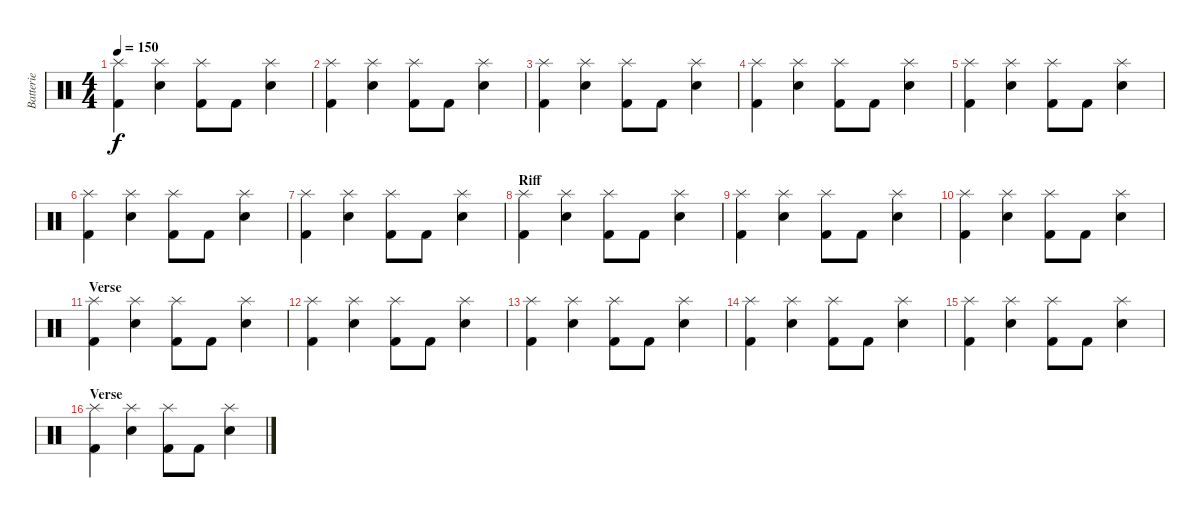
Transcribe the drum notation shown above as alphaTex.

\track ("Batterie" "Batterie") {instrument percussion}
\staff {score}
\articulation defaults
\ts (4 4)
\tempo 150
\clef neutral
\ks c
("Splash (hit)" "Kick (hit) 2").4{dy f} ("Splash (hit)" "Electric Snare (hit)").4 ("Splash (hit)" "Kick (hit) 2").8 "Kick (hit) 2".8 ("Splash (hit)" "Electric Snare (hit)").4 |
("Splash (hit)" "Kick (hit) 2").4 ("Splash (hit)" "Electric Snare (hit)").4 ("Splash (hit)" "Kick (hit) 2").8 "Kick (hit) 2".8 ("Splash (hit)" "Electric Snare (hit)").4 |
("Splash (hit)" "Kick (hit) 2").4 ("Splash (hit)" "Electric Snare (hit)").4 ("Splash (hit)" "Kick (hit) 2").8 "Kick (hit) 2".8 ("Splash (hit)" "Electric Snare (hit)").4 |
("Splash (hit)" "Kick (hit) 2").4 ("Splash (hit)" "Electric Snare (hit)").4 ("Splash (hit)" "Kick (hit) 2").8 "Kick (hit) 2".8 ("Splash (hit)" "Electric Snare (hit)").4 |
("Splash (hit)" "Kick (hit) 2").4 ("Splash (hit)" "Electric Snare (hit)").4 ("Splash (hit)" "Kick (hit) 2").8 "Kick (hit) 2".8 ("Splash (hit)" "Electric Snare (hit)").4 |
("Splash (hit)" "Kick (hit) 2").4 ("Splash (hit)" "Electric Snare (hit)").4 ("Splash (hit)" "Kick (hit) 2").8 "Kick (hit) 2".8 ("Splash (hit)" "Electric Snare (hit)").4 |
("Splash (hit)" "Kick (hit) 2").4 ("Splash (hit)" "Electric Snare (hit)").4 ("Splash (hit)" "Kick (hit) 2").8 "Kick (hit) 2".8 ("Splash (hit)" "Electric Snare (hit)").4 |
\section ("" "Riff")
("Splash (hit)" "Kick (hit) 2").4 ("Splash (hit)" "Electric Snare (hit)").4 ("Splash (hit)" "Kick (hit) 2").8 "Kick (hit) 2".8 ("Splash (hit)" "Electric Snare (hit)").4 |
("Splash (hit)" "Kick (hit) 2").4 ("Splash (hit)" "Electric Snare (hit)").4 ("Splash (hit)" "Kick (hit) 2").8 "Kick (hit) 2".8 ("Splash (hit)" "Electric Snare (hit)").4 |
("Splash (hit)" "Kick (hit) 2").4 ("Splash (hit)" "Electric Snare (hit)").4 ("Splash (hit)" "Kick (hit) 2").8 "Kick (hit) 2".8 ("Splash (hit)" "Electric Snare (hit)").4 |
\section ("" "Verse")
("Splash (hit)" "Kick (hit) 2").4 ("Splash (hit)" "Electric Snare (hit)").4 ("Splash (hit)" "Kick (hit) 2").8 "Kick (hit) 2".8 ("Splash (hit)" "Electric Snare (hit)").4 |
("Splash (hit)" "Kick (hit) 2").4 ("Splash (hit)" "Electric Snare (hit)").4 ("Splash (hit)" "Kick (hit) 2").8 "Kick (hit) 2".8 ("Splash (hit)" "Electric Snare (hit)").4 |
("Splash (hit)" "Kick (hit) 2").4 ("Splash (hit)" "Electric Snare (hit)").4 ("Splash (hit)" "Kick (hit) 2").8 "Kick (hit) 2".8 ("Splash (hit)" "Electric Snare (hit)").4 |
("Splash (hit)" "Kick (hit) 2").4 ("Splash (hit)" "Electric Snare (hit)").4 ("Splash (hit)" "Kick (hit) 2").8 "Kick (hit) 2".8 ("Splash (hit)" "Electric Snare (hit)").4 |
("Splash (hit)" "Kick (hit) 2").4 ("Splash (hit)" "Electric Snare (hit)").4 ("Splash (hit)" "Kick (hit) 2").8 "Kick (hit) 2".8 ("Splash (hit)" "Electric Snare (hit)").4 |
\section ("" "Verse")
("Splash (hit)" "Kick (hit) 2").4 ("Splash (hit)" "Electric Snare (hit)").4 ("Splash (hit)" "Kick (hit) 2").8 "Kick (hit) 2".8 ("Splash (hit)" "Electric Snare (hit)").4
